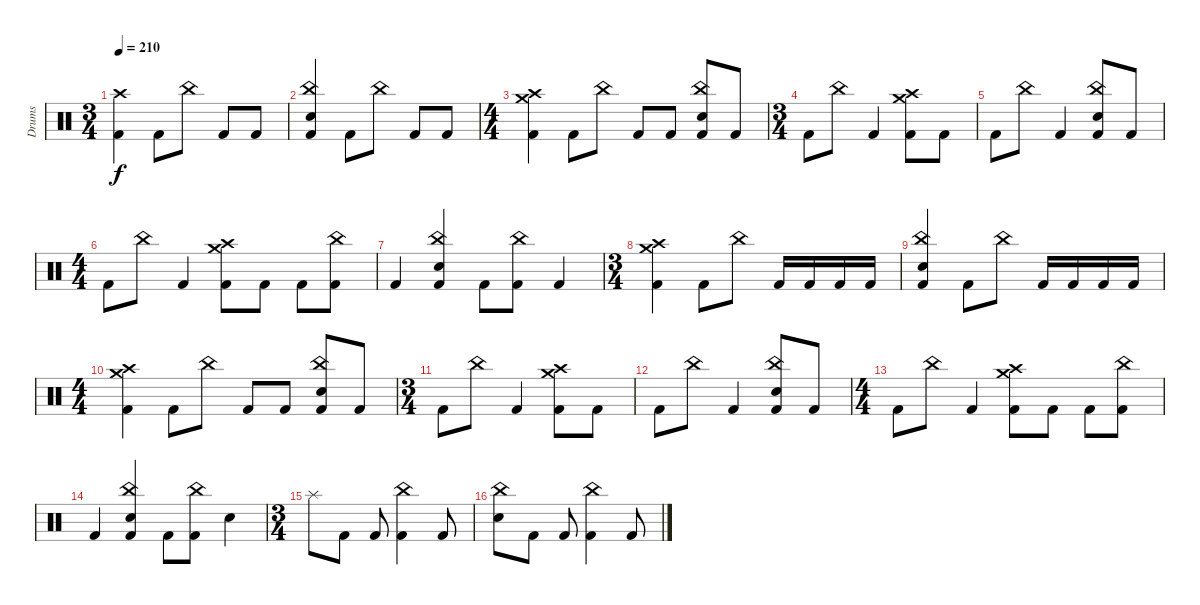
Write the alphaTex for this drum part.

\track ("Drums" "Drums") {instrument percussion}
\staff {score}
\articulation defaults
\ts (3 4)
\tempo 210
\clef neutral
\ks c
("Crash high (hit)" "Kick (hit) 2").4{dy f} "Kick (hit) 2".8 "China (hit)".8 "Kick (hit) 2".8 "Kick (hit) 2".8 |
("China (hit)" "Electric Snare (hit)" "Kick (hit) 2").4 "Kick (hit) 2".8 "China (hit)".8 "Kick (hit) 2".8 "Kick (hit) 2".8 |
\ts (4 4)
("Crash high (hit)" "Crash medium (hit)" "Kick (hit) 2").4 "Kick (hit) 2".8 "China (hit)".8 "Kick (hit) 2".8 "Kick (hit) 2".8 ("China (hit)" "Electric Snare (hit)" "Kick (hit) 2").8 "Kick (hit) 2".8 |
\ts (3 4)
"Kick (hit) 2".8 "China (hit)".8 "Kick (hit) 2".4 ("Crash high (hit)" "Crash medium (hit)" "Kick (hit) 2").8 "Kick (hit) 2".8 |
"Kick (hit) 2".8 "China (hit)".8 "Kick (hit) 2".4 ("China (hit)" "Electric Snare (hit)" "Kick (hit) 2").8 "Kick (hit) 2".8 |
\ts (4 4)
"Kick (hit) 2".8 "China (hit)".8 "Kick (hit) 2".4 ("Crash high (hit)" "Crash medium (hit)" "Kick (hit) 2").8 "Kick (hit) 2".8 "Kick (hit) 2".8 ("China (hit)" "Kick (hit) 2").8 |
"Kick (hit) 2".4 ("China (hit)" "Electric Snare (hit)" "Kick (hit) 2").4 "Kick (hit) 2".8 ("China (hit)" "Kick (hit) 2").8 "Kick (hit) 2".4 |
\ts (3 4)
("Crash high (hit)" "Crash medium (hit)" "Kick (hit) 2").4 "Kick (hit) 2".8 "China (hit)".8 "Kick (hit) 2".16 "Kick (hit) 2".16 "Kick (hit) 2".16 "Kick (hit) 2".16 |
("China (hit)" "Electric Snare (hit)" "Kick (hit) 2").4 "Kick (hit) 2".8 "China (hit)".8 "Kick (hit) 2".16 "Kick (hit) 2".16 "Kick (hit) 2".16 "Kick (hit) 2".16 |
\ts (4 4)
("Crash high (hit)" "Crash medium (hit)" "Kick (hit) 2").4 "Kick (hit) 2".8 "China (hit)".8 "Kick (hit) 2".8 "Kick (hit) 2".8 ("China (hit)" "Electric Snare (hit)" "Kick (hit) 2").8 "Kick (hit) 2".8 |
\ts (3 4)
"Kick (hit) 2".8 "China (hit)".8 "Kick (hit) 2".4 ("Crash high (hit)" "Crash medium (hit)" "Kick (hit) 2").8 "Kick (hit) 2".8 |
"Kick (hit) 2".8 "China (hit)".8 "Kick (hit) 2".4 ("China (hit)" "Electric Snare (hit)" "Kick (hit) 2").8 "Kick (hit) 2".8 |
\ts (4 4)
"Kick (hit) 2".8 "China (hit)".8 "Kick (hit) 2".4 ("Crash high (hit)" "Crash medium (hit)" "Kick (hit) 2").8 "Kick (hit) 2".8 "Kick (hit) 2".8 ("China (hit)" "Kick (hit) 2").8 |
"Kick (hit) 2".4 ("China (hit)" "Electric Snare (hit)" "Kick (hit) 2").4 "Kick (hit) 2".8 ("China (hit)" "Kick (hit) 2").8 "Electric Snare (hit)".4 |
\ts (3 4)
"Splash (hit)".8 "Kick (hit) 2".8 "Kick (hit) 2".8 ("China (hit)" "Kick (hit) 2").4 "Kick (hit) 2".8 |
("China (hit)" "Electric Snare (hit)").8 "Kick (hit) 2".8 "Kick (hit) 2".8 ("China (hit)" "Kick (hit) 2").4 "Kick (hit) 2".8
